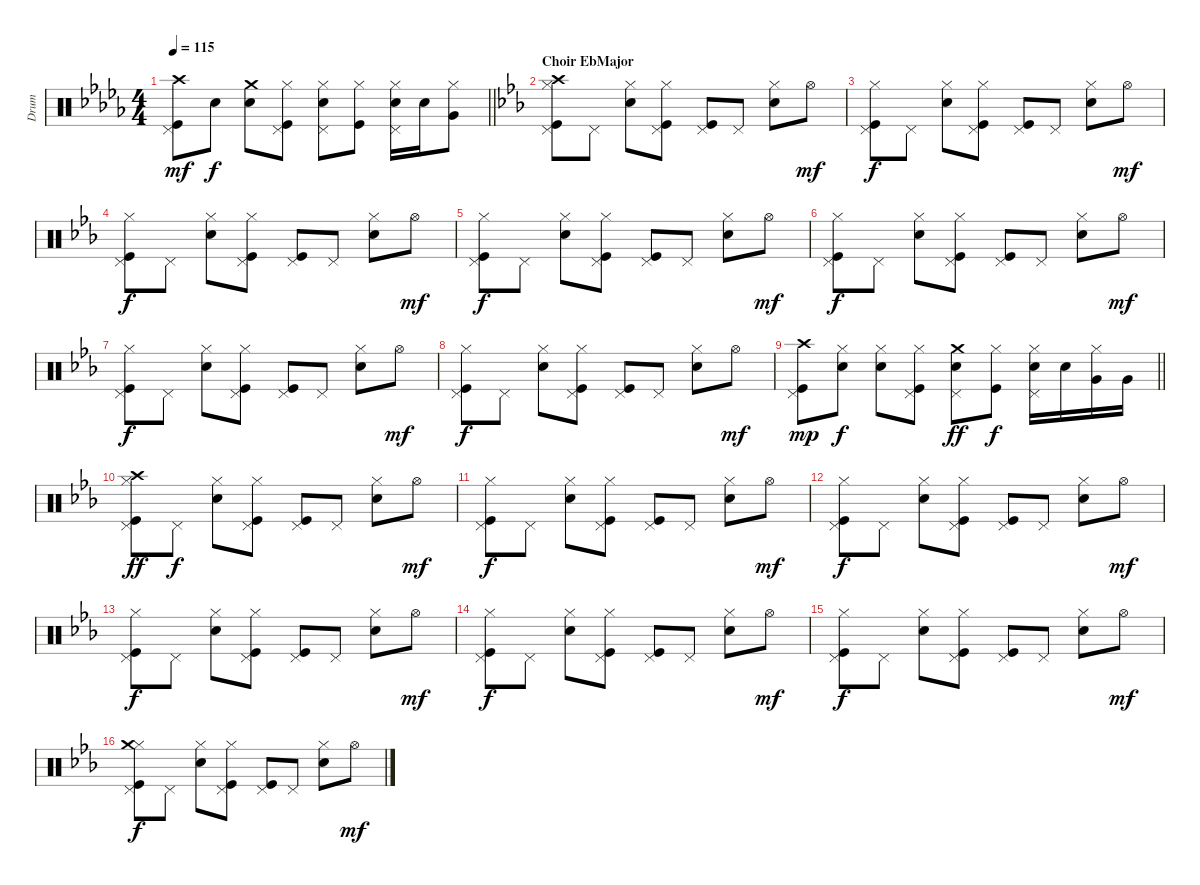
\track ("Drum" "Drum") {instrument percussion}
\staff {score}
\articulation defaults
\ts (4 4)
\tempo 115
\clef neutral
\barLineRight lightlight
\ks db
("Pedal Hi-Hat (hit)" "Kick (hit)" "Crash high (hit)").8{dy mf} "Snare (hit) 2".8{dy f} ("Crash medium (hit)" "Snare (hit) 2").8 ("Hi-Hat (closed)" "Pedal Hi-Hat (hit)" "Kick (hit)").8 ("Hi-Hat (closed)" "Pedal Hi-Hat (hit)" "Snare (hit) 2").8 ("Hi-Hat (closed)" "Kick (hit)").8 ("Hi-Hat (closed)" "Pedal Hi-Hat (hit)" "Snare (hit) 2").16 "Snare (hit) 2".16 ("Hi-Hat (closed)" "Very Low Tom (hit)").8 |
\section ("" "Choir EbMajor")
\ks eb
("Hi-Hat (closed)" "Pedal Hi-Hat (hit)" "Kick (hit)" "Crash high (hit)").8 "Pedal Hi-Hat (hit)".8 ("Hi-Hat (closed)" "Snare (hit) 2").8 ("Hi-Hat (closed)" "Pedal Hi-Hat (hit)" "Kick (hit)").8 ("Kick (hit)" "Pedal Hi-Hat (hit)").8 "Pedal Hi-Hat (hit)".8 ("Hi-Hat (closed)" "Snare (hit) 2").8 "Hi-Hat (open)".8{dy mf} |
("Hi-Hat (closed)" "Pedal Hi-Hat (hit)" "Kick (hit)").8{dy f} "Pedal Hi-Hat (hit)".8 ("Hi-Hat (closed)" "Snare (hit) 2").8 ("Hi-Hat (closed)" "Pedal Hi-Hat (hit)" "Kick (hit)").8 ("Kick (hit)" "Pedal Hi-Hat (hit)").8 "Pedal Hi-Hat (hit)".8 ("Hi-Hat (closed)" "Snare (hit) 2").8 "Hi-Hat (open)".8{dy mf} |
("Hi-Hat (closed)" "Pedal Hi-Hat (hit)" "Kick (hit)").8{dy f} "Pedal Hi-Hat (hit)".8 ("Hi-Hat (closed)" "Snare (hit) 2").8 ("Hi-Hat (closed)" "Pedal Hi-Hat (hit)" "Kick (hit)").8 ("Kick (hit)" "Pedal Hi-Hat (hit)").8 "Pedal Hi-Hat (hit)".8 ("Hi-Hat (closed)" "Snare (hit) 2").8 "Hi-Hat (open)".8{dy mf} |
("Hi-Hat (closed)" "Pedal Hi-Hat (hit)" "Kick (hit)").8{dy f} "Pedal Hi-Hat (hit)".8 ("Hi-Hat (closed)" "Snare (hit) 2").8 ("Hi-Hat (closed)" "Pedal Hi-Hat (hit)" "Kick (hit)").8 ("Kick (hit)" "Pedal Hi-Hat (hit)").8 "Pedal Hi-Hat (hit)".8 ("Hi-Hat (closed)" "Snare (hit) 2").8 "Hi-Hat (open)".8{dy mf} |
("Hi-Hat (closed)" "Pedal Hi-Hat (hit)" "Kick (hit)").8{dy f} "Pedal Hi-Hat (hit)".8 ("Hi-Hat (closed)" "Snare (hit) 2").8 ("Hi-Hat (closed)" "Pedal Hi-Hat (hit)" "Kick (hit)").8 ("Kick (hit)" "Pedal Hi-Hat (hit)").8 "Pedal Hi-Hat (hit)".8 ("Hi-Hat (closed)" "Snare (hit) 2").8 "Hi-Hat (open)".8{dy mf} |
("Hi-Hat (closed)" "Pedal Hi-Hat (hit)" "Kick (hit)").8{dy f} "Pedal Hi-Hat (hit)".8 ("Hi-Hat (closed)" "Snare (hit) 2").8 ("Hi-Hat (closed)" "Pedal Hi-Hat (hit)" "Kick (hit)").8 ("Kick (hit)" "Pedal Hi-Hat (hit)").8 "Pedal Hi-Hat (hit)".8 ("Hi-Hat (closed)" "Snare (hit) 2").8 "Hi-Hat (open)".8{dy mf} |
("Hi-Hat (closed)" "Pedal Hi-Hat (hit)" "Kick (hit)").8{dy f} "Pedal Hi-Hat (hit)".8 ("Hi-Hat (closed)" "Snare (hit) 2").8 ("Hi-Hat (closed)" "Pedal Hi-Hat (hit)" "Kick (hit)").8 ("Kick (hit)" "Pedal Hi-Hat (hit)").8 "Pedal Hi-Hat (hit)".8 ("Hi-Hat (closed)" "Snare (hit) 2").8 "Hi-Hat (open)".8{dy mf} |
\barLineRight lightlight
("Pedal Hi-Hat (hit)" "Kick (hit)" "Crash high (hit)").8{dy mp} ("Hi-Hat (closed)" "Snare (hit) 2").8{dy f} ("Hi-Hat (closed)" "Snare (hit) 2").8 ("Hi-Hat (closed)" "Pedal Hi-Hat (hit)" "Kick (hit)").8 ("Pedal Hi-Hat (hit)" "Snare (hit) 2" "Crash medium (hit)").8{dy ff} ("Hi-Hat (closed)" "Kick (hit)").8{dy f} ("Hi-Hat (closed)" "Pedal Hi-Hat (hit)" "Snare (hit) 2").16 "Snare (hit) 2".16 ("Hi-Hat (closed)" "Very Low Tom (hit)").16 "Very Low Tom (hit)".16 |
("Hi-Hat (closed)" "Pedal Hi-Hat (hit)" "Kick (hit)" "Crash high (hit)").8{dy ff} "Pedal Hi-Hat (hit)".8{dy f} ("Hi-Hat (closed)" "Snare (hit) 2").8 ("Hi-Hat (closed)" "Pedal Hi-Hat (hit)" "Kick (hit)").8 ("Kick (hit)" "Pedal Hi-Hat (hit)").8 "Pedal Hi-Hat (hit)".8 ("Hi-Hat (closed)" "Snare (hit) 2").8 "Hi-Hat (open)".8{dy mf} |
("Hi-Hat (closed)" "Pedal Hi-Hat (hit)" "Kick (hit)").8{dy f} "Pedal Hi-Hat (hit)".8 ("Hi-Hat (closed)" "Snare (hit) 2").8 ("Hi-Hat (closed)" "Pedal Hi-Hat (hit)" "Kick (hit)").8 ("Kick (hit)" "Pedal Hi-Hat (hit)").8 "Pedal Hi-Hat (hit)".8 ("Hi-Hat (closed)" "Snare (hit) 2").8 "Hi-Hat (open)".8{dy mf} |
("Hi-Hat (closed)" "Pedal Hi-Hat (hit)" "Kick (hit)").8{dy f} "Pedal Hi-Hat (hit)".8 ("Hi-Hat (closed)" "Snare (hit) 2").8 ("Hi-Hat (closed)" "Pedal Hi-Hat (hit)" "Kick (hit)").8 ("Kick (hit)" "Pedal Hi-Hat (hit)").8 "Pedal Hi-Hat (hit)".8 ("Hi-Hat (closed)" "Snare (hit) 2").8 "Hi-Hat (open)".8{dy mf} |
("Hi-Hat (closed)" "Pedal Hi-Hat (hit)" "Kick (hit)").8{dy f} "Pedal Hi-Hat (hit)".8 ("Hi-Hat (closed)" "Snare (hit) 2").8 ("Hi-Hat (closed)" "Pedal Hi-Hat (hit)" "Kick (hit)").8 ("Kick (hit)" "Pedal Hi-Hat (hit)").8 "Pedal Hi-Hat (hit)".8 ("Hi-Hat (closed)" "Snare (hit) 2").8 "Hi-Hat (open)".8{dy mf} |
("Hi-Hat (closed)" "Pedal Hi-Hat (hit)" "Kick (hit)").8{dy f} "Pedal Hi-Hat (hit)".8 ("Hi-Hat (closed)" "Snare (hit) 2").8 ("Hi-Hat (closed)" "Pedal Hi-Hat (hit)" "Kick (hit)").8 ("Kick (hit)" "Pedal Hi-Hat (hit)").8 "Pedal Hi-Hat (hit)".8 ("Hi-Hat (closed)" "Snare (hit) 2").8 "Hi-Hat (open)".8{dy mf} |
("Hi-Hat (closed)" "Pedal Hi-Hat (hit)" "Kick (hit)").8{dy f} "Pedal Hi-Hat (hit)".8 ("Hi-Hat (closed)" "Snare (hit) 2").8 ("Hi-Hat (closed)" "Pedal Hi-Hat (hit)" "Kick (hit)").8 ("Kick (hit)" "Pedal Hi-Hat (hit)").8 "Pedal Hi-Hat (hit)".8 ("Hi-Hat (closed)" "Snare (hit) 2").8 "Hi-Hat (open)".8{dy mf} |
("Hi-Hat (closed)" "Pedal Hi-Hat (hit)" "Kick (hit)" "Crash medium (hit)").8{dy f} "Pedal Hi-Hat (hit)".8 ("Hi-Hat (closed)" "Snare (hit) 2").8 ("Hi-Hat (closed)" "Pedal Hi-Hat (hit)" "Kick (hit)").8 ("Kick (hit)" "Pedal Hi-Hat (hit)").8 "Pedal Hi-Hat (hit)".8 ("Hi-Hat (closed)" "Snare (hit) 2").8 "Hi-Hat (open)".8{dy mf}
